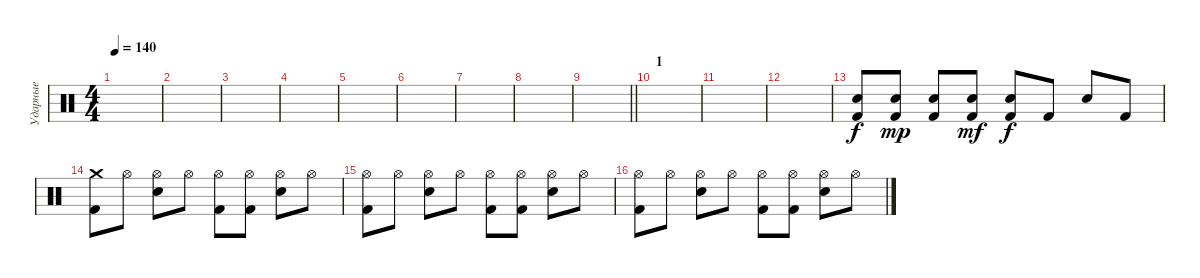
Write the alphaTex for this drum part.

\track ("Ударные" "Ударные") {instrument percussion}
\staff {score}
\articulation defaults
\ts (4 4)
\tempo 140
\clef neutral
\ks c
|
|
|
|
|
|
|
|
\barLineRight lightlight
|
\section ("" "1")
|
|
|
("Electric Snare (hit)" "Kick (hit) 2").8 ("Electric Snare (hit)" "Kick (hit) 2").8{dy mp} ("Electric Snare (hit)" "Kick (hit) 2").8 ("Electric Snare (hit)" "Kick (hit) 2").8{dy mf} ("Electric Snare (hit)" "Kick (hit) 2").8{dy f} "Kick (hit) 2".8 "Electric Snare (hit)".8 "Kick (hit) 2".8 |
("Crash medium (hit)" "Kick (hit) 2").8 "Hi-Hat (open)".8 ("Hi-Hat (open)" "Electric Snare (hit)").8 "Hi-Hat (open)".8 ("Hi-Hat (open)" "Kick (hit) 2").8 ("Hi-Hat (open)" "Kick (hit) 2").8 ("Hi-Hat (open)" "Electric Snare (hit)").8 "Hi-Hat (open)".8 |
("Hi-Hat (open)" "Kick (hit) 2").8 "Hi-Hat (open)".8 ("Hi-Hat (open)" "Electric Snare (hit)").8 "Hi-Hat (open)".8 ("Hi-Hat (open)" "Kick (hit) 2").8 ("Hi-Hat (open)" "Kick (hit) 2").8 ("Hi-Hat (open)" "Electric Snare (hit)").8 "Hi-Hat (open)".8 |
("Hi-Hat (open)" "Kick (hit) 2").8 "Hi-Hat (open)".8 ("Hi-Hat (open)" "Electric Snare (hit)").8 "Hi-Hat (open)".8 ("Hi-Hat (open)" "Kick (hit) 2").8 ("Hi-Hat (open)" "Kick (hit) 2").8 ("Hi-Hat (open)" "Electric Snare (hit)").8 "Hi-Hat (open)".8
